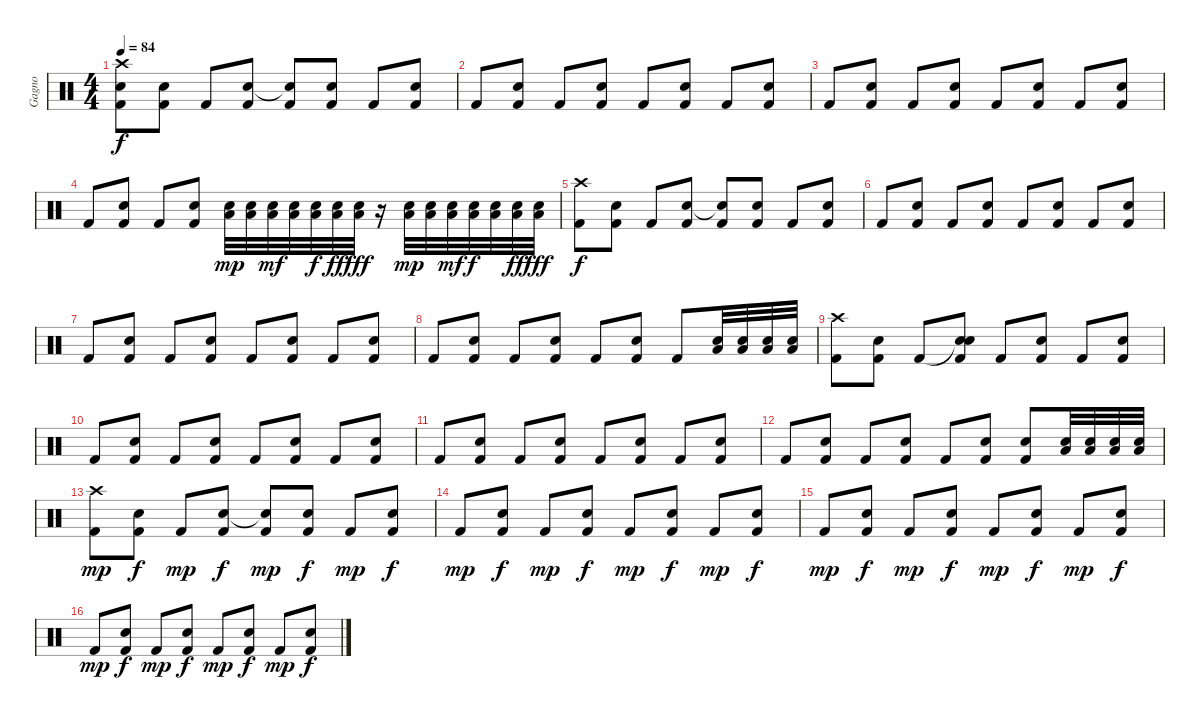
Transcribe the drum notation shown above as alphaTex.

\track ("Gagno" "Gagno") {instrument percussion}
\staff {score}
\articulation defaults
\ts (4 4)
\tempo 84
\clef neutral
\ks c
("Crash high (hit)" "Electric Snare (hit)" "Kick (hit) 2").8{dy f} ("Electric Snare (hit)" "Kick (hit) 2").8 "Kick (hit) 2".8 ("Electric Snare (hit)" "Kick (hit) 2").8 ("Snare (hit)"{t} "Kick (hit) 2").8 ("Electric Snare (hit)" "Kick (hit) 2").8 "Kick (hit) 2".8 ("Electric Snare (hit)" "Kick (hit) 2").8 |
"Kick (hit) 2".8 ("Electric Snare (hit)" "Kick (hit) 2").8 "Kick (hit) 2".8 ("Electric Snare (hit)" "Kick (hit) 2").8 "Kick (hit) 2".8 ("Electric Snare (hit)" "Kick (hit) 2").8 "Kick (hit) 2".8 ("Electric Snare (hit)" "Kick (hit) 2").8 |
"Kick (hit) 2".8 ("Electric Snare (hit)" "Kick (hit) 2").8 "Kick (hit) 2".8 ("Electric Snare (hit)" "Kick (hit) 2").8 "Kick (hit) 2".8 ("Electric Snare (hit)" "Kick (hit) 2").8 "Kick (hit) 2".8 ("Electric Snare (hit)" "Kick (hit) 2").8 |
"Kick (hit) 2".8 ("Electric Snare (hit)" "Kick (hit) 2").8 "Kick (hit) 2".8 ("Electric Snare (hit)" "Kick (hit) 2").8 ("Snare (hit) 2" "Low Floor Tom (hit)").32{dy mp} ("Snare (hit) 2" "Low Floor Tom (hit)").32 ("Snare (hit) 2" "Low Floor Tom (hit)").32{dy mf} ("Snare (hit) 2" "Low Floor Tom (hit)").32 ("Snare (hit) 2" "Low Floor Tom (hit)").32{dy f} ("Snare (hit) 2" "Low Floor Tom (hit)").32{dy ff} ("Snare (hit) 2" "Low Floor Tom (hit)").32{dy fff} r.16 ("Snare (hit) 2" "Low Floor Tom (hit)").32{dy mp} ("Snare (hit) 2" "Low Floor Tom (hit)").32 ("Snare (hit) 2" "Low Floor Tom (hit)").32{dy mf} ("Snare (hit) 2" "Low Floor Tom (hit)").32{dy f} ("Snare (hit) 2" "Low Floor Tom (hit)").32 ("Snare (hit) 2" "Low Floor Tom (hit)").32{dy ff} ("Snare (hit) 2" "Low Floor Tom (hit)").32{dy fff} |
("Crash high (hit)" "Kick (hit) 2").8{dy f} ("Electric Snare (hit)" "Kick (hit) 2").8 "Kick (hit) 2".8 ("Electric Snare (hit)" "Kick (hit) 2").8 ("Snare (hit)"{t} "Kick (hit) 2").8 ("Electric Snare (hit)" "Kick (hit) 2").8 "Kick (hit) 2".8 ("Electric Snare (hit)" "Kick (hit) 2").8 |
"Kick (hit) 2".8 ("Electric Snare (hit)" "Kick (hit) 2").8 "Kick (hit) 2".8 ("Electric Snare (hit)" "Kick (hit) 2").8 "Kick (hit) 2".8 ("Electric Snare (hit)" "Kick (hit) 2").8 "Kick (hit) 2".8 ("Electric Snare (hit)" "Kick (hit) 2").8 |
"Kick (hit) 2".8 ("Electric Snare (hit)" "Kick (hit) 2").8 "Kick (hit) 2".8 ("Electric Snare (hit)" "Kick (hit) 2").8 "Kick (hit) 2".8 ("Electric Snare (hit)" "Kick (hit) 2").8 "Kick (hit) 2".8 ("Electric Snare (hit)" "Kick (hit) 2").8 |
"Kick (hit) 2".8 ("Electric Snare (hit)" "Kick (hit) 2").8 "Kick (hit) 2".8 ("Electric Snare (hit)" "Kick (hit) 2").8 "Kick (hit) 2".8 ("Electric Snare (hit)" "Kick (hit) 2").8 "Kick (hit) 2".8 ("Snare (hit) 2" "Low Floor Tom (hit)").32 ("Snare (hit) 2" "Low Floor Tom (hit)").32 ("Snare (hit) 2" "Low Floor Tom (hit)").32 ("Snare (hit) 2" "Low Floor Tom (hit)").32 |
("Crash high (hit)" "Kick (hit) 2").8 ("Electric Snare (hit)" "Kick (hit) 2").8 "Kick (hit) 2".8 ("Snare (hit)"{t} "Electric Snare (hit)" "Kick (hit) 2").8 "Kick (hit) 2".8 ("Electric Snare (hit)" "Kick (hit) 2").8 "Kick (hit) 2".8 ("Electric Snare (hit)" "Kick (hit) 2").8 |
"Kick (hit) 2".8 ("Electric Snare (hit)" "Kick (hit) 2").8 "Kick (hit) 2".8 ("Electric Snare (hit)" "Kick (hit) 2").8 "Kick (hit) 2".8 ("Electric Snare (hit)" "Kick (hit) 2").8 "Kick (hit) 2".8 ("Electric Snare (hit)" "Kick (hit) 2").8 |
"Kick (hit) 2".8 ("Electric Snare (hit)" "Kick (hit) 2").8 "Kick (hit) 2".8 ("Electric Snare (hit)" "Kick (hit) 2").8 "Kick (hit) 2".8 ("Electric Snare (hit)" "Kick (hit) 2").8 "Kick (hit) 2".8 ("Electric Snare (hit)" "Kick (hit) 2").8 |
"Kick (hit) 2".8 ("Electric Snare (hit)" "Kick (hit) 2").8 "Kick (hit) 2".8 ("Electric Snare (hit)" "Kick (hit) 2").8 "Kick (hit) 2".8 ("Electric Snare (hit)" "Kick (hit) 2").8 ("Electric Snare (hit)" "Kick (hit) 2").8 ("Snare (hit) 2" "Low Floor Tom (hit)").32 ("Snare (hit) 2" "Low Floor Tom (hit)").32 ("Snare (hit) 2" "Low Floor Tom (hit)").32 ("Snare (hit) 2" "Low Floor Tom (hit)").32 |
("Crash high (hit)" "Kick (hit) 2").8{dy mp} ("Electric Snare (hit)" "Kick (hit) 2").8{dy f} "Kick (hit) 2".8{dy mp} ("Electric Snare (hit)" "Kick (hit) 2").8{dy f} ("Snare (hit)"{t} "Kick (hit) 2").8{dy mp} ("Electric Snare (hit)" "Kick (hit) 2").8{dy f} "Kick (hit) 2".8{dy mp} ("Electric Snare (hit)" "Kick (hit) 2").8{dy f} |
"Kick (hit) 2".8{dy mp} ("Electric Snare (hit)" "Kick (hit) 2").8{dy f} "Kick (hit) 2".8{dy mp} ("Electric Snare (hit)" "Kick (hit) 2").8{dy f} "Kick (hit) 2".8{dy mp} ("Electric Snare (hit)" "Kick (hit) 2").8{dy f} "Kick (hit) 2".8{dy mp} ("Electric Snare (hit)" "Kick (hit) 2").8{dy f} |
"Kick (hit) 2".8{dy mp} ("Electric Snare (hit)" "Kick (hit) 2").8{dy f} "Kick (hit) 2".8{dy mp} ("Electric Snare (hit)" "Kick (hit) 2").8{dy f} "Kick (hit) 2".8{dy mp} ("Electric Snare (hit)" "Kick (hit) 2").8{dy f} "Kick (hit) 2".8{dy mp} ("Electric Snare (hit)" "Kick (hit) 2").8{dy f} |
"Kick (hit) 2".8{dy mp} ("Electric Snare (hit)" "Kick (hit) 2").8{dy f} "Kick (hit) 2".8{dy mp} ("Electric Snare (hit)" "Kick (hit) 2").8{dy f} "Kick (hit) 2".8{dy mp} ("Electric Snare (hit)" "Kick (hit) 2").8{dy f} "Kick (hit) 2".8{dy mp} ("Electric Snare (hit)" "Kick (hit) 2").8{dy f}
